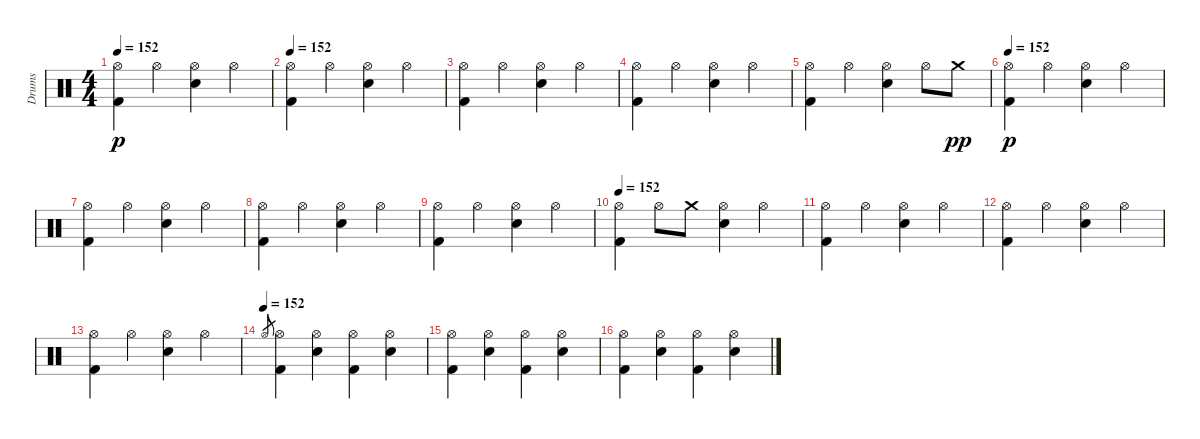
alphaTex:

\track ("Drums" "Drums") {instrument percussion}
\staff {score}
\articulation defaults
\ts (4 4)
\tempo 152
\clef neutral
\ks c
("Hi-Hat (open)" "Kick (hit) 2").4{dy p} "Hi-Hat (open)".4 ("Hi-Hat (open)" "Snare (hit) 2").4 "Hi-Hat (open)".4 |
\tempo 152
("Hi-Hat (open)" "Kick (hit) 2").4 "Hi-Hat (open)".4 ("Hi-Hat (open)" "Snare (hit) 2").4 "Hi-Hat (open)".4 |
("Hi-Hat (open)" "Kick (hit) 2").4 "Hi-Hat (open)".4 ("Hi-Hat (open)" "Snare (hit) 2").4 "Hi-Hat (open)".4 |
("Hi-Hat (open)" "Kick (hit) 2").4 "Hi-Hat (open)".4 ("Hi-Hat (open)" "Snare (hit) 2").4 "Hi-Hat (open)".4 |
("Hi-Hat (open)" "Kick (hit) 2").4 "Hi-Hat (open)".4 ("Hi-Hat (open)" "Snare (hit) 2").4 "Hi-Hat (open)".8 "Crash medium (hit)".8{dy pp} |
\tempo 152
("Hi-Hat (open)" "Kick (hit) 2").4{dy p} "Hi-Hat (open)".4 ("Hi-Hat (open)" "Snare (hit) 2").4 "Hi-Hat (open)".4 |
("Hi-Hat (open)" "Kick (hit) 2").4 "Hi-Hat (open)".4 ("Hi-Hat (open)" "Snare (hit) 2").4 "Hi-Hat (open)".4 |
("Hi-Hat (open)" "Kick (hit) 2").4 "Hi-Hat (open)".4 ("Hi-Hat (open)" "Snare (hit) 2").4 "Hi-Hat (open)".4 |
("Hi-Hat (open)" "Kick (hit) 2").4 "Hi-Hat (open)".4 ("Hi-Hat (open)" "Snare (hit) 2").4 "Hi-Hat (open)".4 |
\tempo 152
("Hi-Hat (open)" "Kick (hit) 2").4 "Hi-Hat (open)".8 "Crash medium (hit)".8 ("Hi-Hat (open)" "Snare (hit) 2").4 "Hi-Hat (open)".4 |
("Hi-Hat (open)" "Kick (hit) 2").4 "Hi-Hat (open)".4 ("Hi-Hat (open)" "Snare (hit) 2").4 "Hi-Hat (open)".4 |
("Hi-Hat (open)" "Kick (hit) 2").4 "Hi-Hat (open)".4 ("Hi-Hat (open)" "Snare (hit) 2").4 "Hi-Hat (open)".4 |
("Hi-Hat (open)" "Kick (hit) 2").4 "Hi-Hat (open)".4 ("Hi-Hat (open)" "Snare (hit) 2").4 "Hi-Hat (open)".4 |
\tempo (152)
"Hi-Hat (open)".8{gr} ("Hi-Hat (open)" "Kick (hit) 2").4 ("Hi-Hat (open)" "Snare (hit) 2").4 ("Hi-Hat (open)" "Kick (hit) 2").4 ("Hi-Hat (open)" "Snare (hit) 2").4 |
("Hi-Hat (open)" "Kick (hit) 2").4 ("Hi-Hat (open)" "Snare (hit) 2").4 ("Hi-Hat (open)" "Kick (hit) 2").4 ("Hi-Hat (open)" "Snare (hit) 2").4 |
("Hi-Hat (open)" "Kick (hit) 2").4 ("Hi-Hat (open)" "Snare (hit) 2").4 ("Hi-Hat (open)" "Kick (hit) 2").4 ("Hi-Hat (open)" "Snare (hit) 2").4
